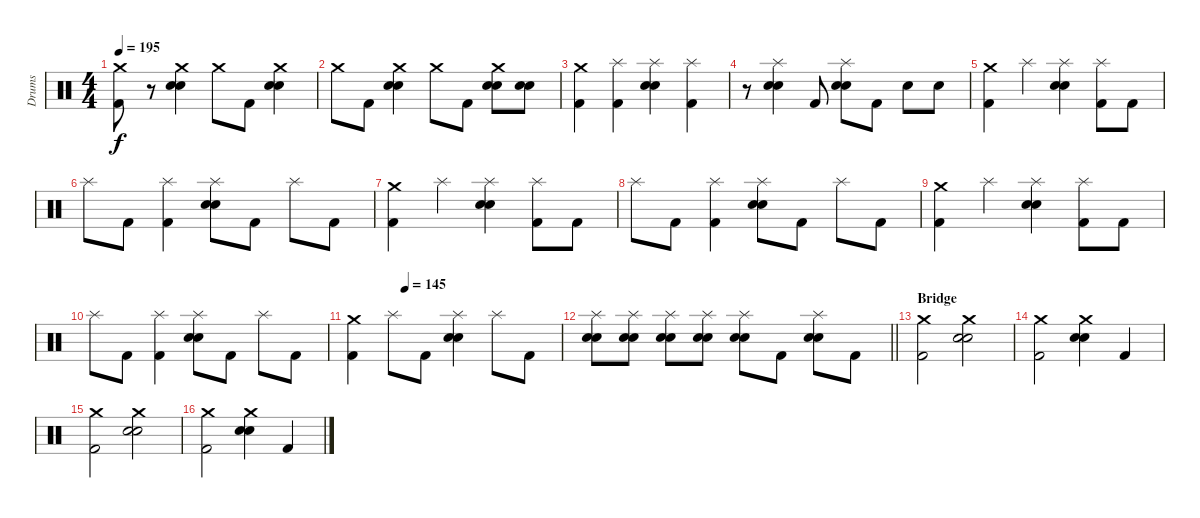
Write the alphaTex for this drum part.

\track ("Drums" "Drums") {instrument percussion}
\staff {score}
\articulation defaults
\ts (4 4)
\tempo 195
\clef neutral
\ks c
("Crash medium (hit)" "Kick (hit) 2").8{dy f} r.8 ("Crash medium (hit)" "Electric Snare (hit)" "Snare (hit) 2").4 "Crash medium (hit)".8 "Kick (hit) 2".8 ("Crash medium (hit)" "Electric Snare (hit)" "Snare (hit) 2").4 |
"Crash medium (hit)".8 "Kick (hit) 2".8 ("Crash medium (hit)" "Electric Snare (hit)" "Snare (hit) 2").4 "Crash medium (hit)".8 "Kick (hit) 2".8 ("Crash medium (hit)" "Electric Snare (hit)" "Snare (hit) 2").8 ("Electric Snare (hit)" "Snare (hit) 2").8 |
("Crash medium (hit)" "Kick (hit) 2").4 ("Splash (hit)" "Kick (hit) 2").4 ("Splash (hit)" "Electric Snare (hit)" "Snare (hit) 2").4 ("Splash (hit)" "Kick (hit) 2").4 |
r.8 ("Splash (hit)" "Electric Snare (hit)" "Snare (hit) 2").4 "Kick (hit) 2".8 ("Splash (hit)" "Electric Snare (hit)" "Snare (hit) 2").8 "Kick (hit) 2".8 "Electric Snare (hit)".8 "Electric Snare (hit)".8 |
("Crash medium (hit)" "Kick (hit) 2").4 "Splash (hit)".4 ("Splash (hit)" "Electric Snare (hit)" "Snare (hit) 2").4 ("Splash (hit)" "Kick (hit) 2").8 "Kick (hit) 2".8 |
"Splash (hit)".8 "Kick (hit) 2".8 ("Splash (hit)" "Kick (hit) 2").4 ("Splash (hit)" "Electric Snare (hit)" "Snare (hit) 2").8 "Kick (hit) 2".8 "Splash (hit)".8 "Kick (hit) 2".8 |
("Crash medium (hit)" "Kick (hit) 2").4 "Splash (hit)".4 ("Splash (hit)" "Electric Snare (hit)" "Snare (hit) 2").4 ("Splash (hit)" "Kick (hit) 2").8 "Kick (hit) 2".8 |
"Splash (hit)".8 "Kick (hit) 2".8 ("Splash (hit)" "Kick (hit) 2").4 ("Splash (hit)" "Electric Snare (hit)" "Snare (hit) 2").8 "Kick (hit) 2".8 "Splash (hit)".8 "Kick (hit) 2".8 |
("Crash medium (hit)" "Kick (hit) 2").4 "Splash (hit)".4 ("Splash (hit)" "Electric Snare (hit)" "Snare (hit) 2").4 ("Splash (hit)" "Kick (hit) 2").8 "Kick (hit) 2".8 |
"Splash (hit)".8 "Kick (hit) 2".8 ("Splash (hit)" "Kick (hit) 2").4 ("Splash (hit)" "Electric Snare (hit)" "Snare (hit) 2").8 "Kick (hit) 2".8 "Splash (hit)".8 "Kick (hit) 2".8 |
\tempo (145 0.25)
("Crash medium (hit)" "Kick (hit) 2").4 "Splash (hit)".8 "Kick (hit) 2".8 ("Splash (hit)" "Electric Snare (hit)" "Snare (hit) 2").4 "Splash (hit)".8 "Kick (hit) 2".8 |
\barLineRight lightlight
("Splash (hit)" "Electric Snare (hit)" "Snare (hit) 2").8 ("Splash (hit)" "Electric Snare (hit)" "Snare (hit) 2").8 ("Splash (hit)" "Electric Snare (hit)" "Snare (hit) 2").8 ("Splash (hit)" "Electric Snare (hit)" "Snare (hit) 2").8 ("Splash (hit)" "Electric Snare (hit)" "Snare (hit) 2").8 "Kick (hit) 2".8 ("Splash (hit)" "Electric Snare (hit)" "Snare (hit) 2").8 "Kick (hit) 2".8 |
\section ("" "Bridge")
("Crash medium (hit)" "Kick (hit) 2").2 ("Crash medium (hit)" "Electric Snare (hit)" "Snare (hit) 2").2 |
("Crash medium (hit)" "Kick (hit) 2").2 ("Crash medium (hit)" "Electric Snare (hit)" "Snare (hit) 2").4 "Kick (hit) 2".4 |
("Crash medium (hit)" "Kick (hit) 2").2 ("Crash medium (hit)" "Electric Snare (hit)" "Snare (hit) 2").2 |
("Crash medium (hit)" "Kick (hit) 2").2 ("Crash medium (hit)" "Electric Snare (hit)" "Snare (hit) 2").4 "Kick (hit) 2".4
